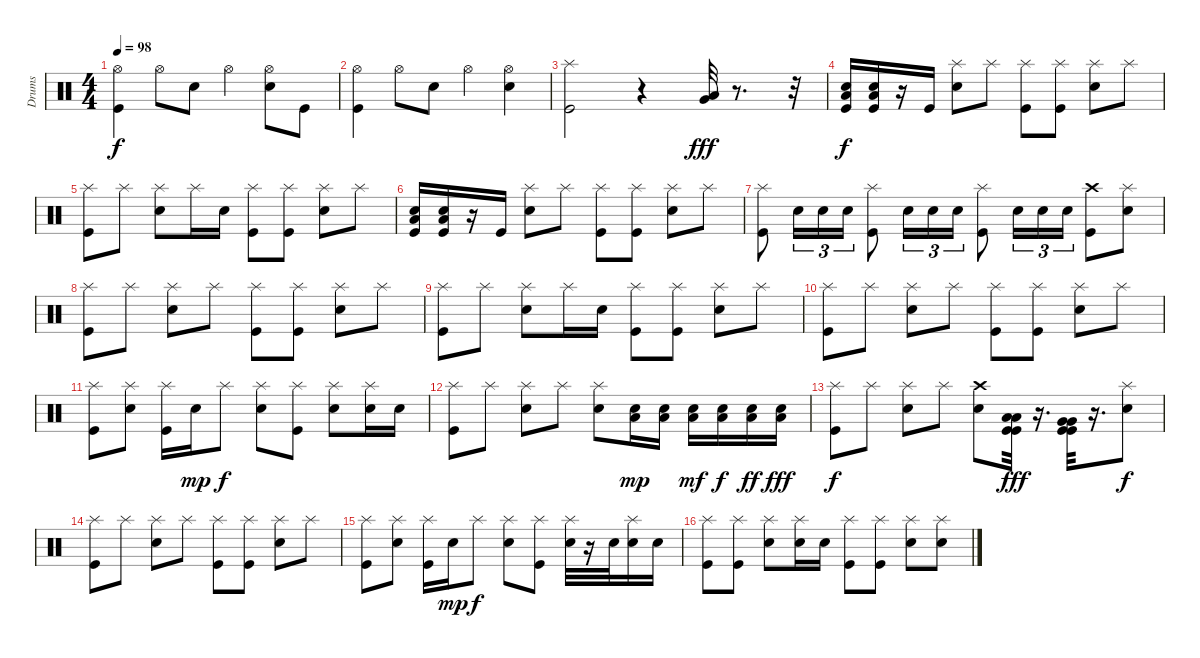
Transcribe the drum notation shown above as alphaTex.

\track ("Drums" "Drums") {instrument percussion}
\staff {score}
\articulation defaults
\ts (4 4)
\tempo 98
\clef neutral
\ks c
("Hi-Hat (open)" "Kick (hit)").4{dy f} "Hi-Hat (open)".8 "Snare (hit) 2".8 "Hi-Hat (open)".4 ("Hi-Hat (open)" "Snare (hit) 2").8 "Kick (hit)".8 |
("Hi-Hat (open)" "Kick (hit)").4 "Hi-Hat (open)".8 "Snare (hit) 2".8 "Hi-Hat (open)".4 ("Hi-Hat (open)" "Snare (hit) 2").4 |
("Splash (hit)" "Kick (hit)").2 r.4 ("Low Tom (hit)" "Very Low Tom (hit)").32{dy fff} r.8{d} r.32 |
("Kick (hit)" "Low Tom (hit)" "Snare (hit) 2").16{dy f} ("Kick (hit)" "Low Tom (hit)" "Snare (hit) 2").16 r.16 "Kick (hit)".16 ("Splash (hit)" "Snare (hit) 2").8 "Splash (hit)".8 ("Splash (hit)" "Kick (hit)").8 ("Splash (hit)" "Kick (hit)").8 ("Splash (hit)" "Snare (hit) 2").8 "Splash (hit)".8 |
("Splash (hit)" "Kick (hit)").8 "Splash (hit)".8 ("Splash (hit)" "Snare (hit) 2").8 "Splash (hit)".16 "Snare (hit) 2".16 ("Splash (hit)" "Kick (hit)").8 ("Splash (hit)" "Kick (hit)").8 ("Splash (hit)" "Snare (hit) 2").8 "Splash (hit)".8 |
("Kick (hit)" "Low Tom (hit)" "Snare (hit) 2").16 ("Kick (hit)" "Low Tom (hit)" "Snare (hit) 2").16 r.16 "Kick (hit)".16 ("Splash (hit)" "Snare (hit) 2").8 "Splash (hit)".8 ("Splash (hit)" "Kick (hit)").8 ("Splash (hit)" "Kick (hit)").8 ("Splash (hit)" "Snare (hit) 2").8 "Splash (hit)".8 |
("Splash (hit)" "Kick (hit)").8 "Snare (hit) 2".16{tu (3 2)} "Snare (hit) 2".16{tu (3 2)} "Snare (hit) 2".16{tu (3 2)} ("Splash (hit)" "Kick (hit)").8 "Snare (hit) 2".16{tu (3 2)} "Snare (hit) 2".16{tu (3 2)} "Snare (hit) 2".16{tu (3 2)} ("Splash (hit)" "Kick (hit)").8 "Snare (hit) 2".16{tu (3 2)} "Snare (hit) 2".16{tu (3 2)} "Snare (hit) 2".16{tu (3 2)} ("Crash high (hit)" "Kick (hit)").8 ("Splash (hit)" "Snare (hit) 2").8 |
("Splash (hit)" "Kick (hit)").8 "Splash (hit)".8 ("Splash (hit)" "Snare (hit) 2").8 "Splash (hit)".8 ("Splash (hit)" "Kick (hit)").8 ("Splash (hit)" "Kick (hit)").8 ("Splash (hit)" "Snare (hit) 2").8 "Splash (hit)".8 |
("Splash (hit)" "Kick (hit)").8 "Splash (hit)".8 ("Splash (hit)" "Snare (hit) 2").8 "Splash (hit)".16 "Snare (hit) 2".16 ("Splash (hit)" "Kick (hit)").8 ("Splash (hit)" "Kick (hit)").8 ("Splash (hit)" "Snare (hit) 2").8 "Splash (hit)".8 |
("Splash (hit)" "Kick (hit)").8 "Splash (hit)".8 ("Splash (hit)" "Snare (hit) 2").8 "Splash (hit)".8 ("Splash (hit)" "Kick (hit)").8 ("Splash (hit)" "Kick (hit)").8 ("Splash (hit)" "Snare (hit) 2").8 "Splash (hit)".8 |
("Splash (hit)" "Kick (hit)").8 ("Splash (hit)" "Snare (hit) 2").8 ("Splash (hit)" "Kick (hit)").16 "Snare (hit) 2".16{dy mp} "Splash (hit)".8{dy f} ("Splash (hit)" "Snare (hit) 2").8 ("Splash (hit)" "Kick (hit)").8 ("Splash (hit)" "Snare (hit) 2").8 ("Splash (hit)" "Snare (hit) 2").16 "Snare (hit) 2".16 |
("Splash (hit)" "Kick (hit)").8 "Splash (hit)".8 ("Splash (hit)" "Snare (hit) 2").8 "Splash (hit)".8 ("Splash (hit)" "Snare (hit) 2").8 ("Low Tom (hit)" "Snare (hit) 2").16{dy mp} ("Low Tom (hit)" "Snare (hit) 2").16 ("Low Tom (hit)" "Snare (hit) 2").16{dy mf} ("Low Tom (hit)" "Snare (hit) 2").16{dy f} ("Low Tom (hit)" "Snare (hit) 2").16{dy ff} ("Low Tom (hit)" "Snare (hit) 2").16{dy fff} |
("Splash (hit)" "Kick (hit)").8{dy f} "Splash (hit)".8 ("Splash (hit)" "Snare (hit) 2").8 "Splash (hit)".8 ("Crash high (hit)" "Snare (hit) 2").8 ("Low Tom (hit)" "Kick (hit)" "Low Tom (hit)" "Kick (hit)").32{dy fff} r.16{d} ("Very Low Tom (hit)" "Kick (hit)" "Very Low Tom (hit)" "Kick (hit)").32 r.16{d} ("Splash (hit)" "Snare (hit) 2").8{dy f} |
("Splash (hit)" "Kick (hit)").8 "Splash (hit)".8 ("Splash (hit)" "Snare (hit) 2").8 "Splash (hit)".8 ("Splash (hit)" "Kick (hit)").8 ("Splash (hit)" "Kick (hit)").8 ("Splash (hit)" "Snare (hit) 2").8 "Splash (hit)".8 |
("Splash (hit)" "Kick (hit)").8 ("Splash (hit)" "Snare (hit) 2").8 ("Splash (hit)" "Kick (hit)").16 "Snare (hit) 2".16{dy mp} "Splash (hit)".8{dy f} ("Splash (hit)" "Snare (hit) 2").8 ("Splash (hit)" "Kick (hit)").8 ("Splash (hit)" "Snare (hit) 2").32 r.16 "Snare (hit) 2".32 ("Splash (hit)" "Snare (hit) 2").16 "Snare (hit) 2".16 |
("Splash (hit)" "Kick (hit)").8 ("Splash (hit)" "Kick (hit)").8 ("Splash (hit)" "Snare (hit) 2").8 ("Splash (hit)" "Snare (hit) 2").16 "Snare (hit) 2".16 ("Splash (hit)" "Kick (hit)").8 ("Splash (hit)" "Kick (hit)").8 ("Splash (hit)" "Snare (hit) 2").8 ("Splash (hit)" "Snare (hit) 2").8
